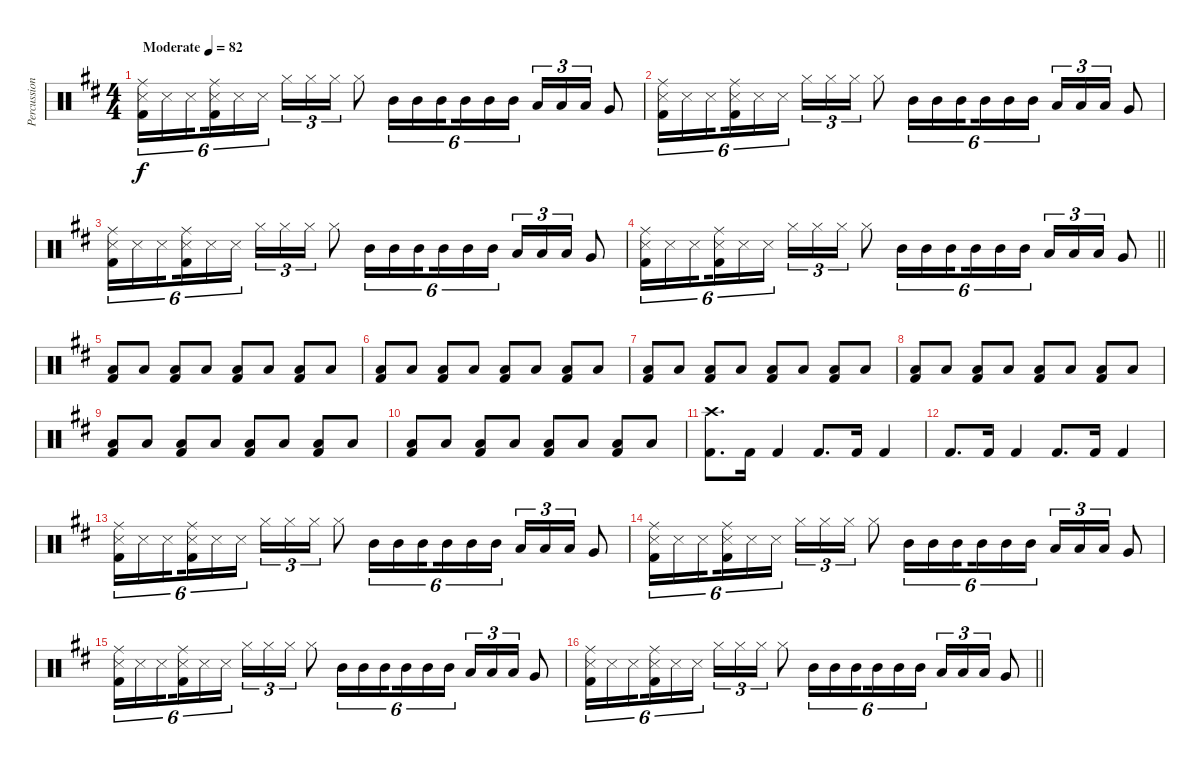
\track ("Percussion" "Percussion") {instrument percussion}
\staff {score}
\articulation defaults
\ts (4 4)
\tempo (82 "Moderate")
\clef neutral
\ks d
("Snare (side stick) 3" "Kick (hit) 2" "Ride (middle)").16{tu (6 4) dy f} "Snare (side stick) 3".16{tu (6 4)} "Snare (side stick) 3".16{tu (6 4) beam splitsecondary} ("Snare (side stick) 3" "Kick (hit) 2" "Ride (middle)").16{tu (6 4)} "Snare (side stick) 3".16{tu (6 4)} "Snare (side stick) 3".16{tu (6 4)} "Hi-Hat (closed)".16{tu (3 2)} "Hi-Hat (closed)".16{tu (3 2)} "Hi-Hat (closed)".16{tu (3 2)} "Hi-Hat (closed)".8 "Mid Tom (hit)".16{tu (6 4)} "Mid Tom (hit)".16{tu (6 4)} "Mid Tom (hit)".16{tu (6 4) beam splitsecondary} "Mid Tom (hit)".16{tu (6 4)} "Mid Tom (hit)".16{tu (6 4)} "Mid Tom (hit)".16{tu (6 4)} "Low Tom (hit)".16{tu (3 2)} "Low Tom (hit)".16{tu (3 2)} "Low Tom (hit)".16{tu (3 2)} "Very Low Tom (hit)".8 |
("Snare (side stick) 3" "Kick (hit) 2" "Ride (middle)").16{tu (6 4)} "Snare (side stick) 3".16{tu (6 4)} "Snare (side stick) 3".16{tu (6 4) beam splitsecondary} ("Snare (side stick) 3" "Kick (hit) 2" "Ride (middle)").16{tu (6 4)} "Snare (side stick) 3".16{tu (6 4)} "Snare (side stick) 3".16{tu (6 4)} "Hi-Hat (closed)".16{tu (3 2)} "Hi-Hat (closed)".16{tu (3 2)} "Hi-Hat (closed)".16{tu (3 2)} "Hi-Hat (closed)".8 "Mid Tom (hit)".16{tu (6 4)} "Mid Tom (hit)".16{tu (6 4)} "Mid Tom (hit)".16{tu (6 4) beam splitsecondary} "Mid Tom (hit)".16{tu (6 4)} "Mid Tom (hit)".16{tu (6 4)} "Mid Tom (hit)".16{tu (6 4)} "Low Tom (hit)".16{tu (3 2)} "Low Tom (hit)".16{tu (3 2)} "Low Tom (hit)".16{tu (3 2)} "Very Low Tom (hit)".8 |
("Snare (side stick) 3" "Kick (hit) 2" "Ride (middle)").16{tu (6 4)} "Snare (side stick) 3".16{tu (6 4)} "Snare (side stick) 3".16{tu (6 4) beam splitsecondary} ("Snare (side stick) 3" "Kick (hit) 2" "Ride (middle)").16{tu (6 4)} "Snare (side stick) 3".16{tu (6 4)} "Snare (side stick) 3".16{tu (6 4)} "Hi-Hat (closed)".16{tu (3 2)} "Hi-Hat (closed)".16{tu (3 2)} "Hi-Hat (closed)".16{tu (3 2)} "Hi-Hat (closed)".8 "Mid Tom (hit)".16{tu (6 4)} "Mid Tom (hit)".16{tu (6 4)} "Mid Tom (hit)".16{tu (6 4) beam splitsecondary} "Mid Tom (hit)".16{tu (6 4)} "Mid Tom (hit)".16{tu (6 4)} "Mid Tom (hit)".16{tu (6 4)} "Low Tom (hit)".16{tu (3 2)} "Low Tom (hit)".16{tu (3 2)} "Low Tom (hit)".16{tu (3 2)} "Very Low Tom (hit)".8 |
\barLineRight lightlight
("Snare (side stick) 3" "Kick (hit) 2" "Ride (middle)").16{tu (6 4)} "Snare (side stick) 3".16{tu (6 4)} "Snare (side stick) 3".16{tu (6 4) beam splitsecondary} ("Snare (side stick) 3" "Kick (hit) 2" "Ride (middle)").16{tu (6 4)} "Snare (side stick) 3".16{tu (6 4)} "Snare (side stick) 3".16{tu (6 4)} "Hi-Hat (closed)".16{tu (3 2)} "Hi-Hat (closed)".16{tu (3 2)} "Hi-Hat (closed)".16{tu (3 2)} "Hi-Hat (closed)".8 "Mid Tom (hit)".16{tu (6 4)} "Mid Tom (hit)".16{tu (6 4)} "Mid Tom (hit)".16{tu (6 4) beam splitsecondary} "Mid Tom (hit)".16{tu (6 4)} "Mid Tom (hit)".16{tu (6 4)} "Mid Tom (hit)".16{tu (6 4)} "Low Tom (hit)".16{tu (3 2)} "Low Tom (hit)".16{tu (3 2)} "Low Tom (hit)".16{tu (3 2)} "Very Low Tom (hit)".8 |
("Low Floor Tom (hit)" "Kick (hit) 2").8 "Low Floor Tom (hit)".8 ("Low Floor Tom (hit)" "Kick (hit) 2").8 "Low Floor Tom (hit)".8 ("Low Floor Tom (hit)" "Kick (hit) 2").8 "Low Floor Tom (hit)".8 ("Low Floor Tom (hit)" "Kick (hit) 2").8 "Low Floor Tom (hit)".8 |
("Low Floor Tom (hit)" "Kick (hit) 2").8 "Low Floor Tom (hit)".8 ("Low Floor Tom (hit)" "Kick (hit) 2").8 "Low Floor Tom (hit)".8 ("Low Floor Tom (hit)" "Kick (hit) 2").8 "Low Floor Tom (hit)".8 ("Low Floor Tom (hit)" "Kick (hit) 2").8 "Low Floor Tom (hit)".8 |
("Low Floor Tom (hit)" "Kick (hit) 2").8 "Low Floor Tom (hit)".8 ("Low Floor Tom (hit)" "Kick (hit) 2").8 "Low Floor Tom (hit)".8 ("Low Floor Tom (hit)" "Kick (hit) 2").8 "Low Floor Tom (hit)".8 ("Low Floor Tom (hit)" "Kick (hit) 2").8 "Low Floor Tom (hit)".8 |
("Low Floor Tom (hit)" "Kick (hit) 2").8 "Low Floor Tom (hit)".8 ("Low Floor Tom (hit)" "Kick (hit) 2").8 "Low Floor Tom (hit)".8 ("Low Floor Tom (hit)" "Kick (hit) 2").8 "Low Floor Tom (hit)".8 ("Low Floor Tom (hit)" "Kick (hit) 2").8 "Low Floor Tom (hit)".8 |
("Low Floor Tom (hit)" "Kick (hit) 2").8 "Low Floor Tom (hit)".8 ("Low Floor Tom (hit)" "Kick (hit) 2").8 "Low Floor Tom (hit)".8 ("Low Floor Tom (hit)" "Kick (hit) 2").8 "Low Floor Tom (hit)".8 ("Low Floor Tom (hit)" "Kick (hit) 2").8 "Low Floor Tom (hit)".8 |
("Low Floor Tom (hit)" "Kick (hit) 2").8 "Low Floor Tom (hit)".8 ("Low Floor Tom (hit)" "Kick (hit) 2").8 "Low Floor Tom (hit)".8 ("Low Floor Tom (hit)" "Kick (hit) 2").8 "Low Floor Tom (hit)".8 ("Low Floor Tom (hit)" "Kick (hit) 2").8 "Low Floor Tom (hit)".8 |
("Crash high (hit)" "Kick (hit) 2").8{d} "Kick (hit) 2".16 "Kick (hit) 2".4 "Kick (hit) 2".8{d} "Kick (hit) 2".16 "Kick (hit) 2".4 |
"Kick (hit) 2".8{d} "Kick (hit) 2".16 "Kick (hit) 2".4 "Kick (hit) 2".8{d} "Kick (hit) 2".16 "Kick (hit) 2".4 |
("Snare (side stick) 3" "Kick (hit) 2" "Ride (middle)").16{tu (6 4)} "Snare (side stick) 3".16{tu (6 4)} "Snare (side stick) 3".16{tu (6 4) beam splitsecondary} ("Snare (side stick) 3" "Kick (hit) 2" "Ride (middle)").16{tu (6 4)} "Snare (side stick) 3".16{tu (6 4)} "Snare (side stick) 3".16{tu (6 4)} "Hi-Hat (closed)".16{tu (3 2)} "Hi-Hat (closed)".16{tu (3 2)} "Hi-Hat (closed)".16{tu (3 2)} "Hi-Hat (closed)".8 "Mid Tom (hit)".16{tu (6 4)} "Mid Tom (hit)".16{tu (6 4)} "Mid Tom (hit)".16{tu (6 4) beam splitsecondary} "Mid Tom (hit)".16{tu (6 4)} "Mid Tom (hit)".16{tu (6 4)} "Mid Tom (hit)".16{tu (6 4)} "Low Tom (hit)".16{tu (3 2)} "Low Tom (hit)".16{tu (3 2)} "Low Tom (hit)".16{tu (3 2)} "Very Low Tom (hit)".8 |
("Snare (side stick) 3" "Kick (hit) 2" "Ride (middle)").16{tu (6 4)} "Snare (side stick) 3".16{tu (6 4)} "Snare (side stick) 3".16{tu (6 4) beam splitsecondary} ("Snare (side stick) 3" "Kick (hit) 2" "Ride (middle)").16{tu (6 4)} "Snare (side stick) 3".16{tu (6 4)} "Snare (side stick) 3".16{tu (6 4)} "Hi-Hat (closed)".16{tu (3 2)} "Hi-Hat (closed)".16{tu (3 2)} "Hi-Hat (closed)".16{tu (3 2)} "Hi-Hat (closed)".8 "Mid Tom (hit)".16{tu (6 4)} "Mid Tom (hit)".16{tu (6 4)} "Mid Tom (hit)".16{tu (6 4) beam splitsecondary} "Mid Tom (hit)".16{tu (6 4)} "Mid Tom (hit)".16{tu (6 4)} "Mid Tom (hit)".16{tu (6 4)} "Low Tom (hit)".16{tu (3 2)} "Low Tom (hit)".16{tu (3 2)} "Low Tom (hit)".16{tu (3 2)} "Very Low Tom (hit)".8 |
("Snare (side stick) 3" "Kick (hit) 2" "Ride (middle)").16{tu (6 4)} "Snare (side stick) 3".16{tu (6 4)} "Snare (side stick) 3".16{tu (6 4) beam splitsecondary} ("Snare (side stick) 3" "Kick (hit) 2" "Ride (middle)").16{tu (6 4)} "Snare (side stick) 3".16{tu (6 4)} "Snare (side stick) 3".16{tu (6 4)} "Hi-Hat (closed)".16{tu (3 2)} "Hi-Hat (closed)".16{tu (3 2)} "Hi-Hat (closed)".16{tu (3 2)} "Hi-Hat (closed)".8 "Mid Tom (hit)".16{tu (6 4)} "Mid Tom (hit)".16{tu (6 4)} "Mid Tom (hit)".16{tu (6 4) beam splitsecondary} "Mid Tom (hit)".16{tu (6 4)} "Mid Tom (hit)".16{tu (6 4)} "Mid Tom (hit)".16{tu (6 4)} "Low Tom (hit)".16{tu (3 2)} "Low Tom (hit)".16{tu (3 2)} "Low Tom (hit)".16{tu (3 2)} "Very Low Tom (hit)".8 |
\barLineRight lightlight
("Snare (side stick) 3" "Kick (hit) 2" "Ride (middle)").16{tu (6 4)} "Snare (side stick) 3".16{tu (6 4)} "Snare (side stick) 3".16{tu (6 4) beam splitsecondary} ("Snare (side stick) 3" "Kick (hit) 2" "Ride (middle)").16{tu (6 4)} "Snare (side stick) 3".16{tu (6 4)} "Snare (side stick) 3".16{tu (6 4)} "Hi-Hat (closed)".16{tu (3 2)} "Hi-Hat (closed)".16{tu (3 2)} "Hi-Hat (closed)".16{tu (3 2)} "Hi-Hat (closed)".8 "Mid Tom (hit)".16{tu (6 4)} "Mid Tom (hit)".16{tu (6 4)} "Mid Tom (hit)".16{tu (6 4) beam splitsecondary} "Mid Tom (hit)".16{tu (6 4)} "Mid Tom (hit)".16{tu (6 4)} "Mid Tom (hit)".16{tu (6 4)} "Low Tom (hit)".16{tu (3 2)} "Low Tom (hit)".16{tu (3 2)} "Low Tom (hit)".16{tu (3 2)} "Very Low Tom (hit)".8
